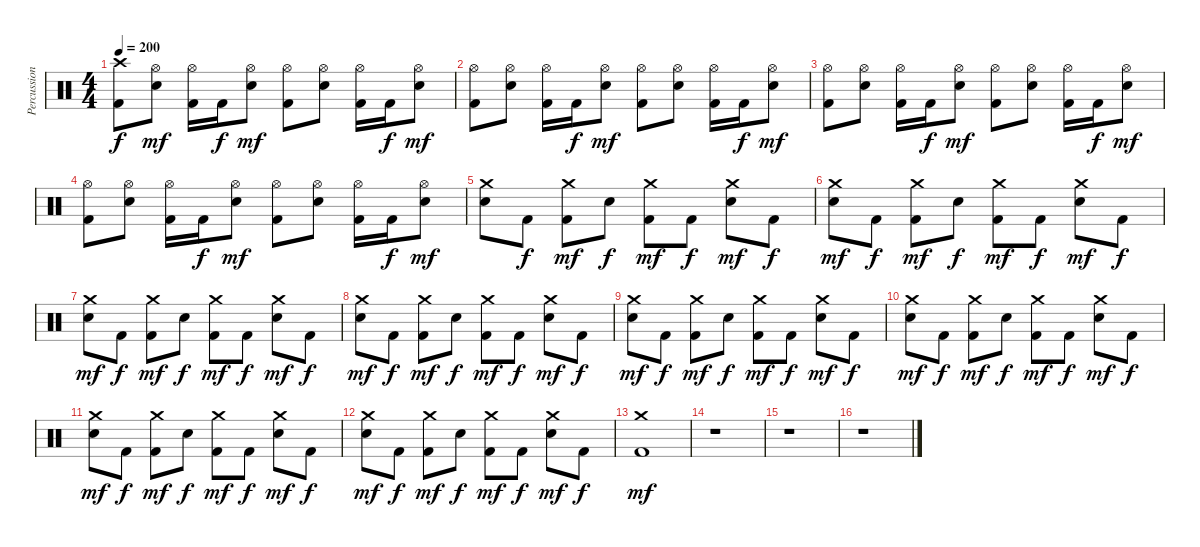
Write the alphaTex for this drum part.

\track ("Percussions" "Percussion") {instrument percussion}
\staff {score}
\articulation defaults
\ts (4 4)
\tempo 200
\clef neutral
\ks c
("Crash high (hit)" "Kick (hit) 2").8{dy f} ("Hi-Hat (open)" "Snare (hit) 2").8{dy mf} ("Hi-Hat (open)" "Kick (hit) 2").16 "Kick (hit) 2".16{dy f} ("Hi-Hat (open)" "Snare (hit) 2").8{dy mf} ("Hi-Hat (open)" "Kick (hit) 2").8 ("Hi-Hat (open)" "Snare (hit) 2").8 ("Hi-Hat (open)" "Kick (hit) 2").16 "Kick (hit) 2".16{dy f} ("Hi-Hat (open)" "Snare (hit) 2").8{dy mf} |
("Hi-Hat (open)" "Kick (hit) 2").8 ("Hi-Hat (open)" "Snare (hit) 2").8 ("Hi-Hat (open)" "Kick (hit) 2").16 "Kick (hit) 2".16{dy f} ("Hi-Hat (open)" "Snare (hit) 2").8{dy mf} ("Hi-Hat (open)" "Kick (hit) 2").8 ("Hi-Hat (open)" "Snare (hit) 2").8 ("Hi-Hat (open)" "Kick (hit) 2").16 "Kick (hit) 2".16{dy f} ("Hi-Hat (open)" "Snare (hit) 2").8{dy mf} |
("Hi-Hat (open)" "Kick (hit) 2").8 ("Hi-Hat (open)" "Snare (hit) 2").8 ("Hi-Hat (open)" "Kick (hit) 2").16 "Kick (hit) 2".16{dy f} ("Hi-Hat (open)" "Snare (hit) 2").8{dy mf} ("Hi-Hat (open)" "Kick (hit) 2").8 ("Hi-Hat (open)" "Snare (hit) 2").8 ("Hi-Hat (open)" "Kick (hit) 2").16 "Kick (hit) 2".16{dy f} ("Hi-Hat (open)" "Snare (hit) 2").8{dy mf} |
("Hi-Hat (open)" "Kick (hit) 2").8 ("Hi-Hat (open)" "Snare (hit) 2").8 ("Hi-Hat (open)" "Kick (hit) 2").16 "Kick (hit) 2".16{dy f} ("Hi-Hat (open)" "Snare (hit) 2").8{dy mf} ("Hi-Hat (open)" "Kick (hit) 2").8 ("Hi-Hat (open)" "Snare (hit) 2").8 ("Hi-Hat (open)" "Kick (hit) 2").16 "Kick (hit) 2".16{dy f} ("Hi-Hat (open)" "Snare (hit) 2").8{dy mf} |
("Crash medium (hit)" "Snare (hit) 2").8 "Kick (hit) 2".8{dy f} ("Crash medium (hit)" "Kick (hit) 2").8{dy mf} "Snare (hit) 2".8{dy f} ("Crash medium (hit)" "Kick (hit) 2").8{dy mf} "Kick (hit) 2".8{dy f} ("Crash medium (hit)" "Snare (hit) 2").8{dy mf} "Kick (hit) 2".8{dy f} |
("Crash medium (hit)" "Snare (hit) 2").8{dy mf} "Kick (hit) 2".8{dy f} ("Crash medium (hit)" "Kick (hit) 2").8{dy mf} "Snare (hit) 2".8{dy f} ("Crash medium (hit)" "Kick (hit) 2").8{dy mf} "Kick (hit) 2".8{dy f} ("Crash medium (hit)" "Snare (hit) 2").8{dy mf} "Kick (hit) 2".8{dy f} |
("Crash medium (hit)" "Snare (hit) 2").8{dy mf} "Kick (hit) 2".8{dy f} ("Crash medium (hit)" "Kick (hit) 2").8{dy mf} "Snare (hit) 2".8{dy f} ("Crash medium (hit)" "Kick (hit) 2").8{dy mf} "Kick (hit) 2".8{dy f} ("Crash medium (hit)" "Snare (hit) 2").8{dy mf} "Kick (hit) 2".8{dy f} |
("Crash medium (hit)" "Snare (hit) 2").8{dy mf} "Kick (hit) 2".8{dy f} ("Crash medium (hit)" "Kick (hit) 2").8{dy mf} "Snare (hit) 2".8{dy f} ("Crash medium (hit)" "Kick (hit) 2").8{dy mf} "Kick (hit) 2".8{dy f} ("Crash medium (hit)" "Snare (hit) 2").8{dy mf} "Kick (hit) 2".8{dy f} |
("Crash medium (hit)" "Snare (hit) 2").8{dy mf} "Kick (hit) 2".8{dy f} ("Crash medium (hit)" "Kick (hit) 2").8{dy mf} "Snare (hit) 2".8{dy f} ("Crash medium (hit)" "Kick (hit) 2").8{dy mf} "Kick (hit) 2".8{dy f} ("Crash medium (hit)" "Snare (hit) 2").8{dy mf} "Kick (hit) 2".8{dy f} |
("Crash medium (hit)" "Snare (hit) 2").8{dy mf} "Kick (hit) 2".8{dy f} ("Crash medium (hit)" "Kick (hit) 2").8{dy mf} "Snare (hit) 2".8{dy f} ("Crash medium (hit)" "Kick (hit) 2").8{dy mf} "Kick (hit) 2".8{dy f} ("Crash medium (hit)" "Snare (hit) 2").8{dy mf} "Kick (hit) 2".8{dy f} |
("Crash medium (hit)" "Snare (hit) 2").8{dy mf} "Kick (hit) 2".8{dy f} ("Crash medium (hit)" "Kick (hit) 2").8{dy mf} "Snare (hit) 2".8{dy f} ("Crash medium (hit)" "Kick (hit) 2").8{dy mf} "Kick (hit) 2".8{dy f} ("Crash medium (hit)" "Snare (hit) 2").8{dy mf} "Kick (hit) 2".8{dy f} |
("Crash medium (hit)" "Snare (hit) 2").8{dy mf} "Kick (hit) 2".8{dy f} ("Crash medium (hit)" "Kick (hit) 2").8{dy mf} "Snare (hit) 2".8{dy f} ("Crash medium (hit)" "Kick (hit) 2").8{dy mf} "Kick (hit) 2".8{dy f} ("Crash medium (hit)" "Snare (hit) 2").8{dy mf} "Kick (hit) 2".8{dy f} |
("Crash medium (hit)" "Kick (hit) 2").1{dy mf} |
r.1 |
r.1 |
r.1
